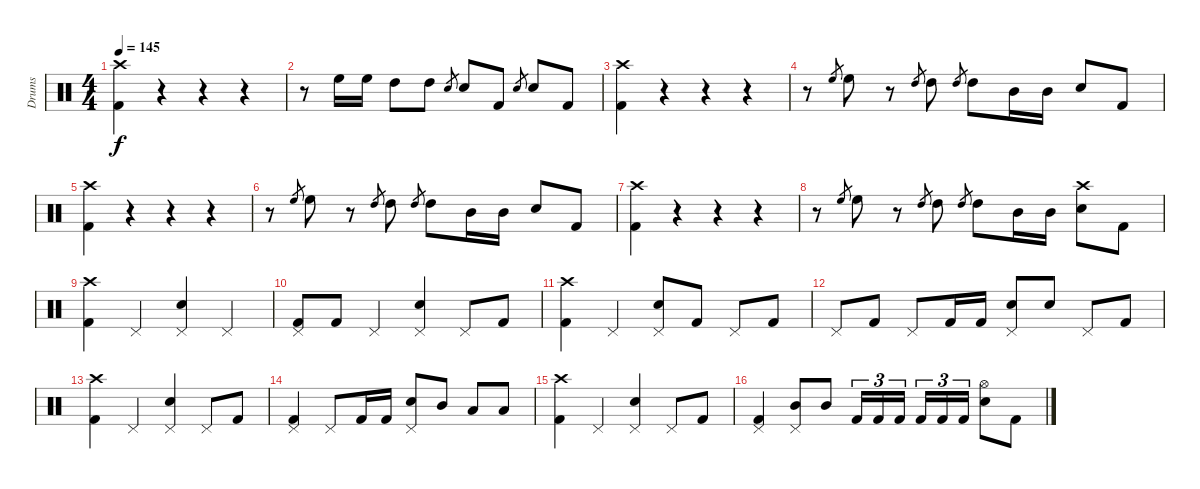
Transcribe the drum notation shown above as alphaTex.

\track ("Drums" "Drums") {instrument percussion}
\staff {score}
\articulation defaults
\ts (4 4)
\tempo 145
\clef neutral
\ks c
("Crash high (hit)" "Kick (hit) 2").4{dy f} r.4 r.4 r.4 |
r.8 "High Floor Tom (hit)".16 "High Floor Tom (hit)".16 "High Tom (hit)".8 "High Tom (hit)".8 "Electric Snare (hit)".8{gr} "Electric Snare (hit)".8 "Kick (hit) 2".8 "Electric Snare (hit)".8{gr} "Electric Snare (hit)".8 "Kick (hit) 2".8 |
("Crash high (hit)" "Kick (hit) 2").4 r.4 r.4 r.4 |
r.8 "High Floor Tom (hit)".8{gr} "High Floor Tom (hit)".8 r.8 "High Tom (hit)".8{gr} "High Tom (hit)".8 "High Tom (hit)".8{gr} "High Tom (hit)".8 "Mid Tom (hit)".16 "Mid Tom (hit)".16 "Electric Snare (hit)".8 "Kick (hit) 2".8 |
("Crash high (hit)" "Kick (hit) 2").4 r.4 r.4 r.4 |
r.8 "High Floor Tom (hit)".8{gr} "High Floor Tom (hit)".8 r.8 "High Tom (hit)".8{gr} "High Tom (hit)".8 "High Tom (hit)".8{gr} "High Tom (hit)".8 "Mid Tom (hit)".16 "Mid Tom (hit)".16 "Electric Snare (hit)".8 "Kick (hit) 2".8 |
("Crash high (hit)" "Kick (hit) 2").4 r.4 r.4 r.4 |
r.8 "High Floor Tom (hit)".8{gr} "High Floor Tom (hit)".8 r.8 "High Tom (hit)".8{gr} "High Tom (hit)".8 "High Tom (hit)".8{gr} "High Tom (hit)".8 "Mid Tom (hit)".16 "Mid Tom (hit)".16 ("Crash high (hit)" "Electric Snare (hit)").8 "Kick (hit) 2".8 |
("Crash high (hit)" "Kick (hit) 2").4 "Pedal Hi-Hat (hit)".4 ("Pedal Hi-Hat (hit)" "Electric Snare (hit)").4 "Pedal Hi-Hat (hit)".4 |
("Pedal Hi-Hat (hit)" "Kick (hit) 2").8 "Kick (hit) 2".8 "Pedal Hi-Hat (hit)".4 ("Pedal Hi-Hat (hit)" "Electric Snare (hit)").4 "Pedal Hi-Hat (hit)".8 "Kick (hit) 2".8 |
("Crash high (hit)" "Kick (hit) 2").4 "Pedal Hi-Hat (hit)".4 ("Pedal Hi-Hat (hit)" "Electric Snare (hit)").8 "Kick (hit) 2".8 "Pedal Hi-Hat (hit)".8 "Kick (hit) 2".8 |
"Pedal Hi-Hat (hit)".8 "Kick (hit) 2".8 "Pedal Hi-Hat (hit)".8 "Kick (hit) 2".16 "Kick (hit) 2".16 ("Pedal Hi-Hat (hit)" "Electric Snare (hit)").8 "Electric Snare (hit)".8 "Pedal Hi-Hat (hit)".8 "Kick (hit) 2".8 |
("Crash high (hit)" "Kick (hit) 2").4 "Pedal Hi-Hat (hit)".4 ("Pedal Hi-Hat (hit)" "Electric Snare (hit)").4 "Pedal Hi-Hat (hit)".8 "Kick (hit) 2".8 |
("Pedal Hi-Hat (hit)" "Kick (hit) 2").4 "Pedal Hi-Hat (hit)".8 "Kick (hit) 2".16 "Kick (hit) 2".16 ("Pedal Hi-Hat (hit)" "Electric Snare (hit)").8 "Mid Tom (hit)".8 "Low Tom (hit)".8 "Low Tom (hit)".8 |
("Crash high (hit)" "Kick (hit) 2").4 "Pedal Hi-Hat (hit)".4 ("Pedal Hi-Hat (hit)" "Electric Snare (hit)").4 "Pedal Hi-Hat (hit)".8 "Kick (hit) 2".8 |
("Pedal Hi-Hat (hit)" "Kick (hit) 2").4 ("Pedal Hi-Hat (hit)" "Mid Tom (hit)").8 "Mid Tom (hit)".8 "Kick (hit) 2".16{tu (3 2)} "Kick (hit) 2".16{tu (3 2)} "Kick (hit) 2".16{tu (3 2)} "Kick (hit) 2".16{tu (3 2)} "Kick (hit) 2".16{tu (3 2)} "Kick (hit) 2".16{tu (3 2)} ("Hi-Hat (open)" "Electric Snare (hit)").8 "Kick (hit) 2".8
